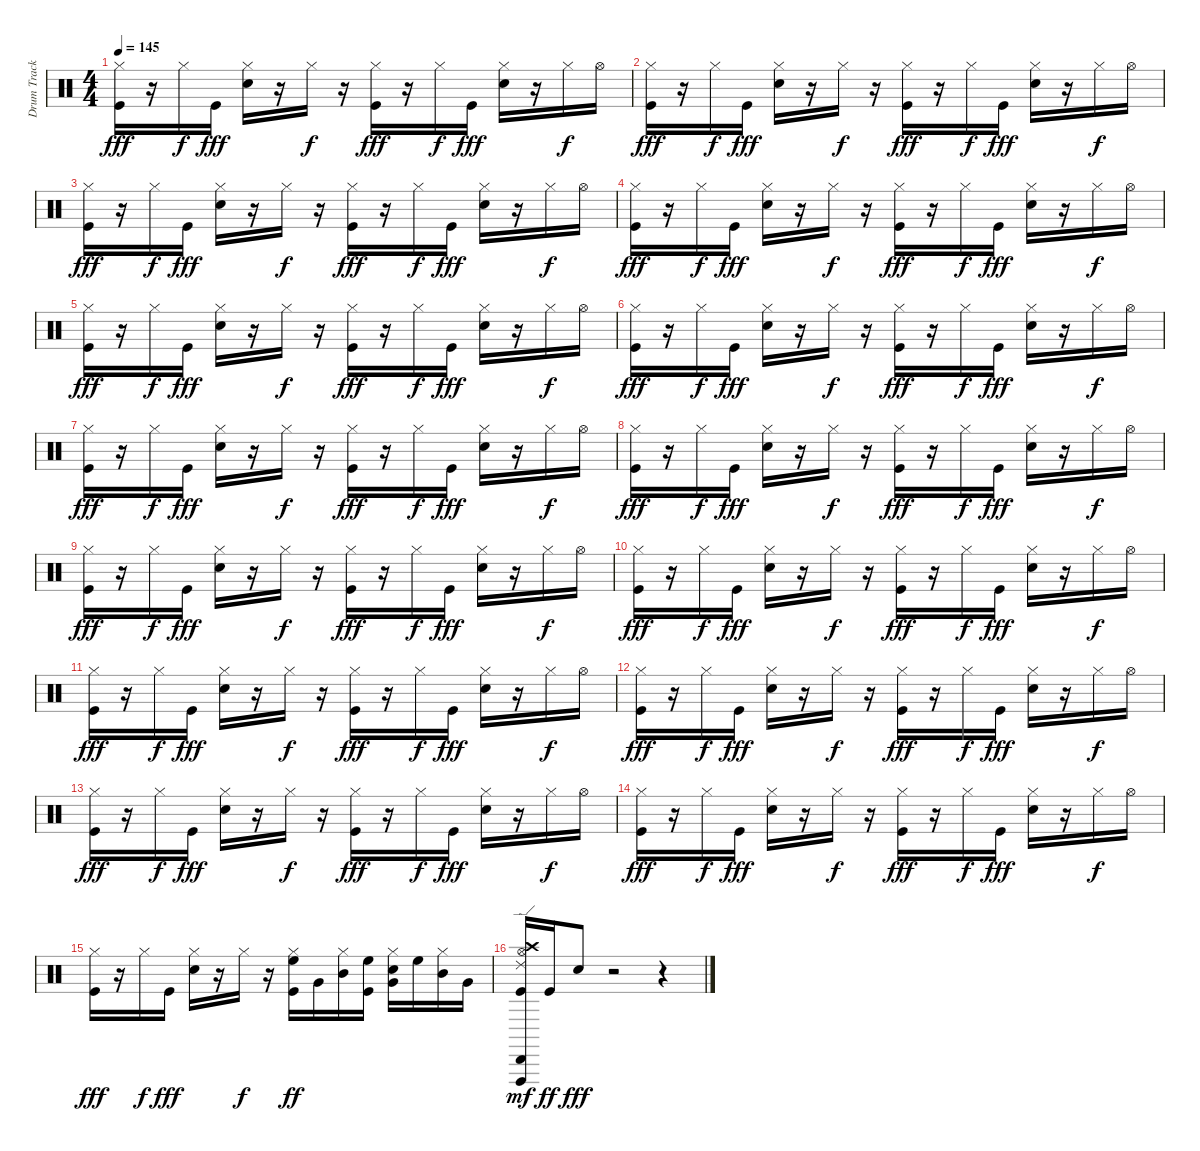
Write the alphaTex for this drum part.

\track ("Drum Track" "Drum Track") {instrument percussion}
\staff {score}
\articulation defaults
\ts (4 4)
\tempo 145
\clef neutral
\ks c
("Kick (hit)" "Hi-Hat (closed)").16{dy fff} r.16 "Hi-Hat (closed)".16{dy f} "Kick (hit)".16{dy fff} ("Hi-Hat (closed)" "Snare (hit) 2").16 r.16 "Hi-Hat (closed)".16{dy f} r.16 ("Kick (hit)" "Hi-Hat (closed)").16{dy fff} r.16 "Hi-Hat (closed)".16{dy f} "Kick (hit)".16{dy fff} ("Hi-Hat (closed)" "Snare (hit) 2").16 r.16 "Hi-Hat (closed)".16{dy f} "Hi-Hat (open)".16 |
("Kick (hit)" "Hi-Hat (closed)").16{dy fff} r.16 "Hi-Hat (closed)".16{dy f} "Kick (hit)".16{dy fff} ("Hi-Hat (closed)" "Snare (hit) 2").16 r.16 "Hi-Hat (closed)".16{dy f} r.16 ("Kick (hit)" "Hi-Hat (closed)").16{dy fff} r.16 "Hi-Hat (closed)".16{dy f} "Kick (hit)".16{dy fff} ("Hi-Hat (closed)" "Snare (hit) 2").16 r.16 "Hi-Hat (closed)".16{dy f} "Hi-Hat (open)".16 |
("Kick (hit)" "Hi-Hat (closed)").16{dy fff} r.16 "Hi-Hat (closed)".16{dy f} "Kick (hit)".16{dy fff} ("Hi-Hat (closed)" "Snare (hit) 2").16 r.16 "Hi-Hat (closed)".16{dy f} r.16 ("Kick (hit)" "Hi-Hat (closed)").16{dy fff} r.16 "Hi-Hat (closed)".16{dy f} "Kick (hit)".16{dy fff} ("Hi-Hat (closed)" "Snare (hit) 2").16 r.16 "Hi-Hat (closed)".16{dy f} "Hi-Hat (open)".16 |
("Kick (hit)" "Hi-Hat (closed)").16{dy fff} r.16 "Hi-Hat (closed)".16{dy f} "Kick (hit)".16{dy fff} ("Hi-Hat (closed)" "Snare (hit) 2").16 r.16 "Hi-Hat (closed)".16{dy f} r.16 ("Kick (hit)" "Hi-Hat (closed)").16{dy fff} r.16 "Hi-Hat (closed)".16{dy f} "Kick (hit)".16{dy fff} ("Hi-Hat (closed)" "Snare (hit) 2").16 r.16 "Hi-Hat (closed)".16{dy f} "Hi-Hat (open)".16 |
("Kick (hit)" "Hi-Hat (closed)").16{dy fff} r.16 "Hi-Hat (closed)".16{dy f} "Kick (hit)".16{dy fff} ("Hi-Hat (closed)" "Snare (hit) 2").16 r.16 "Hi-Hat (closed)".16{dy f} r.16 ("Kick (hit)" "Hi-Hat (closed)").16{dy fff} r.16 "Hi-Hat (closed)".16{dy f} "Kick (hit)".16{dy fff} ("Hi-Hat (closed)" "Snare (hit) 2").16 r.16 "Hi-Hat (closed)".16{dy f} "Hi-Hat (open)".16 |
("Kick (hit)" "Hi-Hat (closed)").16{dy fff} r.16 "Hi-Hat (closed)".16{dy f} "Kick (hit)".16{dy fff} ("Hi-Hat (closed)" "Snare (hit) 2").16 r.16 "Hi-Hat (closed)".16{dy f} r.16 ("Kick (hit)" "Hi-Hat (closed)").16{dy fff} r.16 "Hi-Hat (closed)".16{dy f} "Kick (hit)".16{dy fff} ("Hi-Hat (closed)" "Snare (hit) 2").16 r.16 "Hi-Hat (closed)".16{dy f} "Hi-Hat (open)".16 |
("Kick (hit)" "Hi-Hat (closed)").16{dy fff} r.16 "Hi-Hat (closed)".16{dy f} "Kick (hit)".16{dy fff} ("Hi-Hat (closed)" "Snare (hit) 2").16 r.16 "Hi-Hat (closed)".16{dy f} r.16 ("Kick (hit)" "Hi-Hat (closed)").16{dy fff} r.16 "Hi-Hat (closed)".16{dy f} "Kick (hit)".16{dy fff} ("Hi-Hat (closed)" "Snare (hit) 2").16 r.16 "Hi-Hat (closed)".16{dy f} "Hi-Hat (open)".16 |
("Kick (hit)" "Hi-Hat (closed)").16{dy fff} r.16 "Hi-Hat (closed)".16{dy f} "Kick (hit)".16{dy fff} ("Hi-Hat (closed)" "Snare (hit) 2").16 r.16 "Hi-Hat (closed)".16{dy f} r.16 ("Kick (hit)" "Hi-Hat (closed)").16{dy fff} r.16 "Hi-Hat (closed)".16{dy f} "Kick (hit)".16{dy fff} ("Hi-Hat (closed)" "Snare (hit) 2").16 r.16 "Hi-Hat (closed)".16{dy f} "Hi-Hat (open)".16 |
("Kick (hit)" "Hi-Hat (closed)").16{dy fff} r.16 "Hi-Hat (closed)".16{dy f} "Kick (hit)".16{dy fff} ("Hi-Hat (closed)" "Snare (hit) 2").16 r.16 "Hi-Hat (closed)".16{dy f} r.16 ("Kick (hit)" "Hi-Hat (closed)").16{dy fff} r.16 "Hi-Hat (closed)".16{dy f} "Kick (hit)".16{dy fff} ("Hi-Hat (closed)" "Snare (hit) 2").16 r.16 "Hi-Hat (closed)".16{dy f} "Hi-Hat (open)".16 |
("Kick (hit)" "Hi-Hat (closed)").16{dy fff} r.16 "Hi-Hat (closed)".16{dy f} "Kick (hit)".16{dy fff} ("Hi-Hat (closed)" "Snare (hit) 2").16 r.16 "Hi-Hat (closed)".16{dy f} r.16 ("Kick (hit)" "Hi-Hat (closed)").16{dy fff} r.16 "Hi-Hat (closed)".16{dy f} "Kick (hit)".16{dy fff} ("Hi-Hat (closed)" "Snare (hit) 2").16 r.16 "Hi-Hat (closed)".16{dy f} "Hi-Hat (open)".16 |
("Kick (hit)" "Hi-Hat (closed)").16{dy fff} r.16 "Hi-Hat (closed)".16{dy f} "Kick (hit)".16{dy fff} ("Hi-Hat (closed)" "Snare (hit) 2").16 r.16 "Hi-Hat (closed)".16{dy f} r.16 ("Kick (hit)" "Hi-Hat (closed)").16{dy fff} r.16 "Hi-Hat (closed)".16{dy f} "Kick (hit)".16{dy fff} ("Hi-Hat (closed)" "Snare (hit) 2").16 r.16 "Hi-Hat (closed)".16{dy f} "Hi-Hat (open)".16 |
("Kick (hit)" "Hi-Hat (closed)").16{dy fff} r.16 "Hi-Hat (closed)".16{dy f} "Kick (hit)".16{dy fff} ("Hi-Hat (closed)" "Snare (hit) 2").16 r.16 "Hi-Hat (closed)".16{dy f} r.16 ("Kick (hit)" "Hi-Hat (closed)").16{dy fff} r.16 "Hi-Hat (closed)".16{dy f} "Kick (hit)".16{dy fff} ("Hi-Hat (closed)" "Snare (hit) 2").16 r.16 "Hi-Hat (closed)".16{dy f} "Hi-Hat (open)".16 |
("Kick (hit)" "Hi-Hat (closed)").16{dy fff} r.16 "Hi-Hat (closed)".16{dy f} "Kick (hit)".16{dy fff} ("Hi-Hat (closed)" "Snare (hit) 2").16 r.16 "Hi-Hat (closed)".16{dy f} r.16 ("Kick (hit)" "Hi-Hat (closed)").16{dy fff} r.16 "Hi-Hat (closed)".16{dy f} "Kick (hit)".16{dy fff} ("Hi-Hat (closed)" "Snare (hit) 2").16 r.16 "Hi-Hat (closed)".16{dy f} "Hi-Hat (open)".16 |
("Kick (hit)" "Hi-Hat (closed)").16{dy fff} r.16 "Hi-Hat (closed)".16{dy f} "Kick (hit)".16{dy fff} ("Hi-Hat (closed)" "Snare (hit) 2").16 r.16 "Hi-Hat (closed)".16{dy f} r.16 ("Kick (hit)" "Hi-Hat (closed)").16{dy fff} r.16 "Hi-Hat (closed)".16{dy f} "Kick (hit)".16{dy fff} ("Hi-Hat (closed)" "Snare (hit) 2").16 r.16 "Hi-Hat (closed)".16{dy f} "Hi-Hat (open)".16 |
("Kick (hit)" "Hi-Hat (closed)").16{dy fff} r.16 "Hi-Hat (closed)".16{dy f} "Kick (hit)".16{dy fff} ("Hi-Hat (closed)" "Snare (hit) 2").16 r.16 "Hi-Hat (closed)".16{dy f} r.16 ("Kick (hit)" "Hi-Hat (closed)" "High Floor Tom (hit)").16{dy ff} "Very Low Tom (hit)".16 ("Hi-Hat (closed)" "Mid Tom (hit)").16 ("Kick (hit)" "High Floor Tom (hit)").16 ("Hi-Hat (closed)" "Snare (hit) 2" "Very Low Tom (hit)").16 "High Floor Tom (hit)".16 ("Hi-Hat (closed)" "Mid Tom (hit)").16 "Very Low Tom (hit)".16 |
("Kick (hit)" "Hi-Hat (open)" "Crash high (hit)" "Cabasa (hit)" "Ride (edge) 2" "Vibraslap (hit)").16{dy mf} "Kick (hit)".16{dy ff} "Snare (hit) 2".8{dy fff} r.2 r.4
